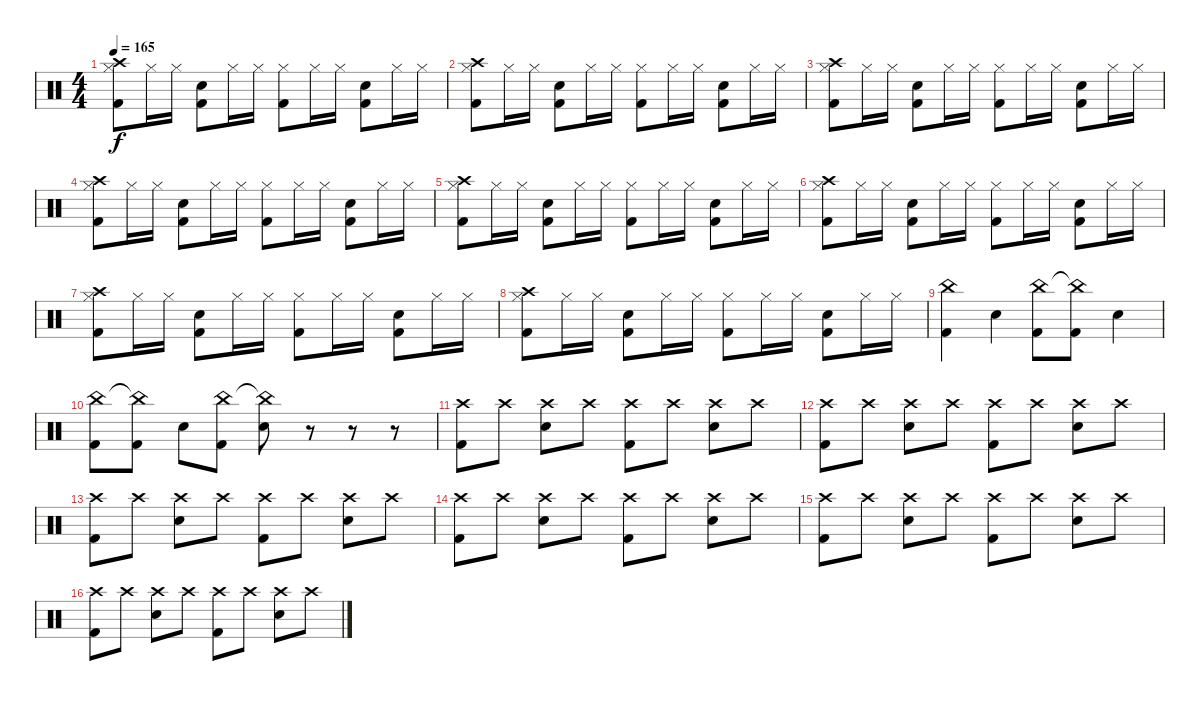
\track "" {instrument percussion}
\staff {score}
\articulation defaults
\ts (4 4)
\tempo 165
\clef neutral
\ks c
("Crash high (hit)" "Hi-Hat (closed)" "Kick (hit) 2").8{dy f} "Hi-Hat (closed)".16 "Hi-Hat (closed)".16 ("Electric Snare (hit)" "Kick (hit) 2").8 "Hi-Hat (closed)".16 "Hi-Hat (closed)".16 ("Hi-Hat (closed)" "Kick (hit) 2").8 "Hi-Hat (closed)".16 "Hi-Hat (closed)".16 ("Electric Snare (hit)" "Kick (hit) 2").8 "Hi-Hat (closed)".16 "Hi-Hat (closed)".16 |
("Crash high (hit)" "Hi-Hat (closed)" "Kick (hit) 2").8 "Hi-Hat (closed)".16 "Hi-Hat (closed)".16 ("Electric Snare (hit)" "Kick (hit) 2").8 "Hi-Hat (closed)".16 "Hi-Hat (closed)".16 ("Hi-Hat (closed)" "Kick (hit) 2").8 "Hi-Hat (closed)".16 "Hi-Hat (closed)".16 ("Electric Snare (hit)" "Kick (hit) 2").8 "Hi-Hat (closed)".16 "Hi-Hat (closed)".16 |
("Crash high (hit)" "Hi-Hat (closed)" "Kick (hit) 2").8 "Hi-Hat (closed)".16 "Hi-Hat (closed)".16 ("Electric Snare (hit)" "Kick (hit) 2").8 "Hi-Hat (closed)".16 "Hi-Hat (closed)".16 ("Hi-Hat (closed)" "Kick (hit) 2").8 "Hi-Hat (closed)".16 "Hi-Hat (closed)".16 ("Electric Snare (hit)" "Kick (hit) 2").8 "Hi-Hat (closed)".16 "Hi-Hat (closed)".16 |
("Crash high (hit)" "Hi-Hat (closed)" "Kick (hit) 2").8 "Hi-Hat (closed)".16 "Hi-Hat (closed)".16 ("Electric Snare (hit)" "Kick (hit) 2").8 "Hi-Hat (closed)".16 "Hi-Hat (closed)".16 ("Hi-Hat (closed)" "Kick (hit) 2").8 "Hi-Hat (closed)".16 "Hi-Hat (closed)".16 ("Electric Snare (hit)" "Kick (hit) 2").8 "Hi-Hat (closed)".16 "Hi-Hat (closed)".16 |
("Crash high (hit)" "Hi-Hat (closed)" "Kick (hit) 2").8 "Hi-Hat (closed)".16 "Hi-Hat (closed)".16 ("Electric Snare (hit)" "Kick (hit) 2").8 "Hi-Hat (closed)".16 "Hi-Hat (closed)".16 ("Hi-Hat (closed)" "Kick (hit) 2").8 "Hi-Hat (closed)".16 "Hi-Hat (closed)".16 ("Electric Snare (hit)" "Kick (hit) 2").8 "Hi-Hat (closed)".16 "Hi-Hat (closed)".16 |
("Crash high (hit)" "Hi-Hat (closed)" "Kick (hit) 2").8 "Hi-Hat (closed)".16 "Hi-Hat (closed)".16 ("Electric Snare (hit)" "Kick (hit) 2").8 "Hi-Hat (closed)".16 "Hi-Hat (closed)".16 ("Hi-Hat (closed)" "Kick (hit) 2").8 "Hi-Hat (closed)".16 "Hi-Hat (closed)".16 ("Electric Snare (hit)" "Kick (hit) 2").8 "Hi-Hat (closed)".16 "Hi-Hat (closed)".16 |
("Crash high (hit)" "Hi-Hat (closed)" "Kick (hit) 2").8 "Hi-Hat (closed)".16 "Hi-Hat (closed)".16 ("Electric Snare (hit)" "Kick (hit) 2").8 "Hi-Hat (closed)".16 "Hi-Hat (closed)".16 ("Hi-Hat (closed)" "Kick (hit) 2").8 "Hi-Hat (closed)".16 "Hi-Hat (closed)".16 ("Electric Snare (hit)" "Kick (hit) 2").8 "Hi-Hat (closed)".16 "Hi-Hat (closed)".16 |
("Crash high (hit)" "Hi-Hat (closed)" "Kick (hit) 2").8 "Hi-Hat (closed)".16 "Hi-Hat (closed)".16 ("Electric Snare (hit)" "Kick (hit) 2").8 "Hi-Hat (closed)".16 "Hi-Hat (closed)".16 ("Hi-Hat (closed)" "Kick (hit) 2").8 "Hi-Hat (closed)".16 "Hi-Hat (closed)".16 ("Electric Snare (hit)" "Kick (hit) 2").8 "Hi-Hat (closed)".16 "Hi-Hat (closed)".16 |
("China (hit)" "Kick (hit) 2").4 "Electric Snare (hit)".4 ("China (hit)" "Kick (hit) 2").8 ("China (hit)"{t} "Kick (hit) 2").8 "Electric Snare (hit)".4 |
("China (hit)" "Kick (hit) 2").8 ("China (hit)"{t} "Kick (hit) 2").8 "Electric Snare (hit)".8 ("China (hit)" "Kick (hit) 2").8 ("China (hit)"{t} "Electric Snare (hit)").8 r.8 r.8 r.8 |
("Crash high (hit)" "Kick (hit) 2").8 "Crash high (hit)".8 ("Crash high (hit)" "Electric Snare (hit)").8 "Crash high (hit)".8 ("Crash high (hit)" "Kick (hit) 2").8 "Crash high (hit)".8 ("Crash high (hit)" "Electric Snare (hit)").8 "Crash high (hit)".8 |
("Crash high (hit)" "Kick (hit) 2").8 "Crash high (hit)".8 ("Crash high (hit)" "Electric Snare (hit)").8 "Crash high (hit)".8 ("Crash high (hit)" "Kick (hit) 2").8 "Crash high (hit)".8 ("Crash high (hit)" "Electric Snare (hit)").8 "Crash high (hit)".8 |
("Crash high (hit)" "Kick (hit) 2").8 "Crash high (hit)".8 ("Crash high (hit)" "Electric Snare (hit)").8 "Crash high (hit)".8 ("Crash high (hit)" "Kick (hit) 2").8 "Crash high (hit)".8 ("Crash high (hit)" "Electric Snare (hit)").8 "Crash high (hit)".8 |
("Crash high (hit)" "Kick (hit) 2").8 "Crash high (hit)".8 ("Crash high (hit)" "Electric Snare (hit)").8 "Crash high (hit)".8 ("Crash high (hit)" "Kick (hit) 2").8 "Crash high (hit)".8 ("Crash high (hit)" "Electric Snare (hit)").8 "Crash high (hit)".8 |
("Crash high (hit)" "Kick (hit) 2").8 "Crash high (hit)".8 ("Crash high (hit)" "Electric Snare (hit)").8 "Crash high (hit)".8 ("Crash high (hit)" "Kick (hit) 2").8 "Crash high (hit)".8 ("Crash high (hit)" "Electric Snare (hit)").8 "Crash high (hit)".8 |
("Crash high (hit)" "Kick (hit) 2").8 "Crash high (hit)".8 ("Crash high (hit)" "Electric Snare (hit)").8 "Crash high (hit)".8 ("Crash high (hit)" "Kick (hit) 2").8 "Crash high (hit)".8 ("Crash high (hit)" "Electric Snare (hit)").8 "Crash high (hit)".8
